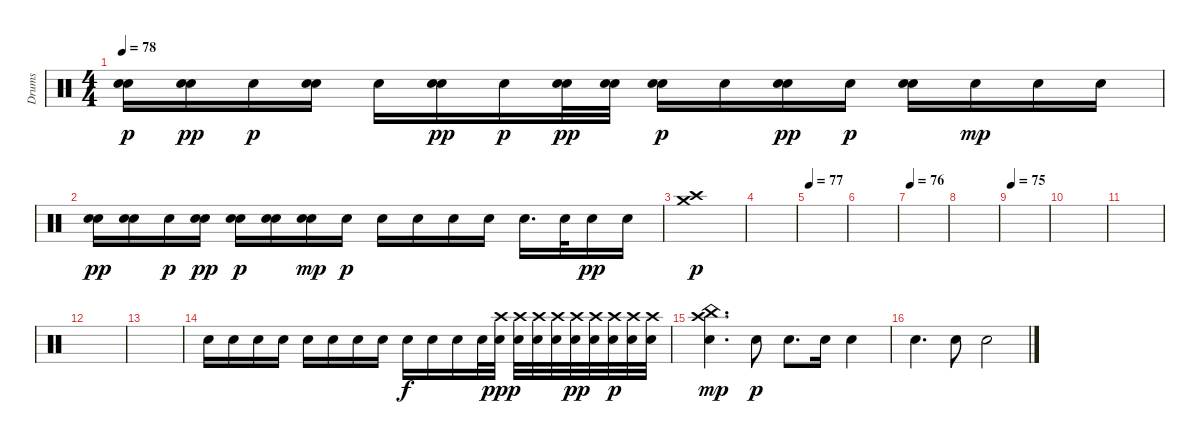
\track ("Drums" "Drums") {instrument percussion}
\staff {score}
\articulation defaults
\ts (4 4)
\tempo 78
\clef neutral
\ks c
("Snare (hit)" "Electric Snare (hit)").16{dy p} ("Snare (hit)" "Electric Snare (hit)").16{dy pp} "Snare (hit)".16{dy p} ("Snare (hit)" "Electric Snare (hit)").16 "Snare (hit)".16 ("Snare (hit)" "Electric Snare (hit)").16{dy pp} "Snare (hit)".16{dy p} ("Snare (hit)" "Electric Snare (hit)").32{dy pp} ("Snare (hit)" "Electric Snare (hit)").32 ("Snare (hit)" "Electric Snare (hit)").16{dy p} "Snare (hit)".16 ("Snare (hit)" "Electric Snare (hit)").16{dy pp} "Snare (hit)".16{dy p} ("Snare (hit)" "Electric Snare (hit)").16 "Snare (hit)".16{dy mp} "Snare (hit)".16 "Snare (hit)".16 |
("Snare (hit)" "Electric Snare (hit)").16{dy pp} ("Snare (hit)" "Electric Snare (hit)").16 "Snare (hit)".16{dy p} ("Snare (hit)" "Electric Snare (hit)").16{dy pp} ("Snare (hit)" "Electric Snare (hit)").16{dy p} ("Snare (hit)" "Electric Snare (hit)").16 ("Snare (hit)" "Electric Snare (hit)").16{dy mp} "Snare (hit)".16{dy p} "Snare (hit)".16 "Snare (hit)".16 "Snare (hit)".16 "Snare (hit)".16 "Snare (hit)".16{d} "Snare (hit)".32 "Snare (hit)".16{dy pp} "Snare (hit)".16 |
("Crash high (hit)" "Crash medium (hit)").1{dy p} |
|
\tempo 77
|
|
\tempo 76
|
|
\tempo 75
|
|
|
|
|
"Snare (hit)".16 "Snare (hit)".16 "Snare (hit)".16 "Snare (hit)".16 "Snare (hit)".16 "Snare (hit)".16 "Snare (hit)".16 "Snare (hit)".16 "Snare (hit)".16{dy f} "Snare (hit)".16 "Snare (hit)".16 "Snare (hit)".32 ("Snare (hit)" "Crash high (hit)").32{dy ppp} ("Snare (hit)" "Crash high (hit)").32 ("Snare (hit)" "Crash high (hit)").32 ("Snare (hit)" "Crash high (hit)").32 ("Snare (hit)" "Crash high (hit)").32{dy pp} ("Snare (hit)" "Crash high (hit)").32 ("Snare (hit)" "Crash high (hit)").32{dy p} ("Snare (hit)" "Crash high (hit)").32 ("Snare (hit)" "Crash high (hit)").32 |
("China (hit)" "Crash high (hit)" "Electric Snare (hit)").4{d dy mp} "Electric Snare (hit)".8{dy p} "Electric Snare (hit)".8{d} "Electric Snare (hit)".16 "Electric Snare (hit)".4 |
"Electric Snare (hit)".4{d} "Electric Snare (hit)".8 "Electric Snare (hit)".2
